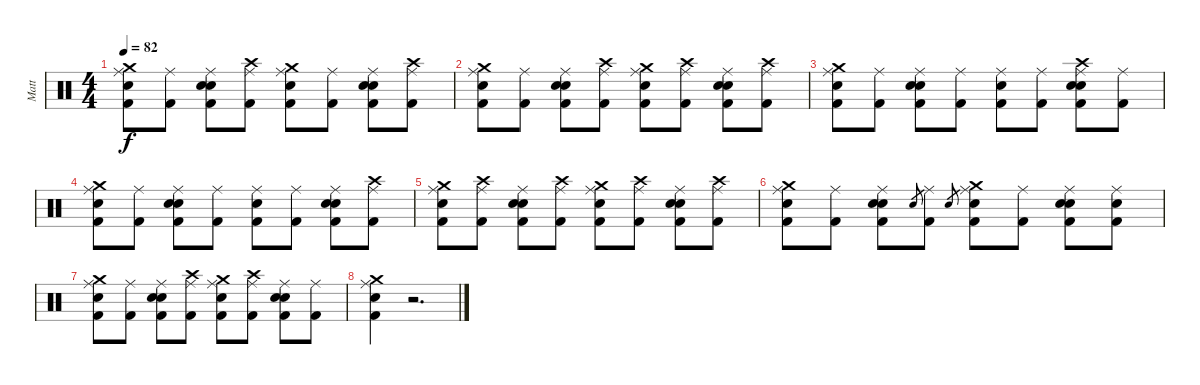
\track ("Matt" "Matt") {instrument percussion}
\staff {score}
\articulation defaults
\ts (4 4)
\tempo 82
\clef neutral
\ks c
("Crash medium (hit)" "Hand Clap (hit)" "Ride (middle)" "Kick (hit) 2").8{dy f} ("Ride (middle)" "Kick (hit) 2").8 ("Hand Clap (hit)" "Ride (middle)" "Electric Snare (hit)" "Kick (hit) 2").8 ("Crash high (hit)" "Ride (middle)" "Kick (hit) 2").8 ("Crash medium (hit)" "Hand Clap (hit)" "Ride (middle)" "Kick (hit) 2").8 ("Ride (middle)" "Kick (hit) 2").8 ("Hand Clap (hit)" "Ride (middle)" "Electric Snare (hit)" "Kick (hit) 2").8 ("Crash high (hit)" "Ride (middle)" "Kick (hit) 2").8 |
("Crash medium (hit)" "Hand Clap (hit)" "Ride (middle)" "Kick (hit) 2").8 ("Ride (middle)" "Kick (hit) 2").8 ("Hand Clap (hit)" "Ride (middle)" "Electric Snare (hit)" "Kick (hit) 2").8 ("Crash high (hit)" "Ride (middle)" "Kick (hit) 2").8 ("Crash medium (hit)" "Hand Clap (hit)" "Ride (middle)" "Kick (hit) 2").8 ("Crash high (hit)" "Ride (middle)" "Kick (hit) 2").8 ("Hand Clap (hit)" "Ride (middle)" "Electric Snare (hit)" "Kick (hit) 2").8 ("Crash high (hit)" "Ride (middle)" "Kick (hit) 2").8 |
("Crash medium (hit)" "Hand Clap (hit)" "Ride (middle)" "Kick (hit) 2").8 ("Ride (middle)" "Kick (hit) 2").8 ("Hand Clap (hit)" "Ride (middle)" "Electric Snare (hit)" "Kick (hit) 2").8 ("Ride (middle)" "Kick (hit) 2").8 ("Hand Clap (hit)" "Ride (middle)" "Kick (hit) 2").8 ("Ride (middle)" "Kick (hit) 2").8 ("Crash high (hit)" "Hand Clap (hit)" "Ride (middle)" "Electric Snare (hit)" "Kick (hit) 2").8 ("Ride (middle)" "Kick (hit) 2").8 |
("Crash medium (hit)" "Hand Clap (hit)" "Ride (middle)" "Kick (hit) 2").8 ("Ride (middle)" "Kick (hit) 2").8 ("Hand Clap (hit)" "Ride (middle)" "Electric Snare (hit)" "Kick (hit) 2").8 ("Ride (middle)" "Kick (hit) 2").8 ("Hand Clap (hit)" "Ride (middle)" "Kick (hit) 2").8 ("Ride (middle)" "Kick (hit) 2").8 ("Hand Clap (hit)" "Ride (middle)" "Electric Snare (hit)" "Kick (hit) 2").8 ("Crash high (hit)" "Ride (middle)" "Kick (hit) 2").8 |
("Crash medium (hit)" "Hand Clap (hit)" "Ride (middle)" "Kick (hit) 2").8{volume 0} ("Crash high (hit)" "Ride (middle)" "Kick (hit) 2").8 ("Hand Clap (hit)" "Ride (middle)" "Electric Snare (hit)" "Kick (hit) 2").8 ("Crash high (hit)" "Ride (middle)" "Kick (hit) 2").8 ("Crash medium (hit)" "Hand Clap (hit)" "Ride (middle)" "Kick (hit) 2").8 ("Crash high (hit)" "Ride (middle)" "Kick (hit) 2").8 ("Hand Clap (hit)" "Ride (middle)" "Electric Snare (hit)" "Kick (hit) 2").8 ("Crash high (hit)" "Ride (middle)" "Kick (hit) 2").8 |
("Crash medium (hit)" "Hand Clap (hit)" "Ride (middle)" "Kick (hit) 2").8 ("Ride (middle)" "Kick (hit) 2").8 ("Hand Clap (hit)" "Ride (middle)" "Electric Snare (hit)" "Kick (hit) 2").8 "Electric Snare (hit)".8{gr} ("Ride (middle)" "Kick (hit) 2").8 "Electric Snare (hit)".8{gr} ("Crash medium (hit)" "Hand Clap (hit)" "Ride (middle)" "Kick (hit) 2").8 ("Ride (middle)" "Kick (hit) 2").8 ("Hand Clap (hit)" "Ride (middle)" "Electric Snare (hit)" "Kick (hit) 2").8 ("Ride (middle)" "Electric Snare (hit)" "Kick (hit) 2").8 |
("Crash medium (hit)" "Hand Clap (hit)" "Ride (middle)" "Kick (hit) 2").8 ("Ride (middle)" "Kick (hit) 2").8 ("Hand Clap (hit)" "Ride (middle)" "Electric Snare (hit)" "Kick (hit) 2").8 ("Crash high (hit)" "Ride (middle)" "Kick (hit) 2").8 ("Crash medium (hit)" "Hand Clap (hit)" "Ride (middle)" "Kick (hit) 2").8 ("Crash high (hit)" "Ride (middle)" "Kick (hit) 2").8 ("Hand Clap (hit)" "Ride (middle)" "Electric Snare (hit)" "Kick (hit) 2").8 ("Ride (middle)" "Kick (hit) 2").8 |
("Crash medium (hit)" "Hand Clap (hit)" "Ride (middle)" "Kick (hit) 2").4 r.2{d}
